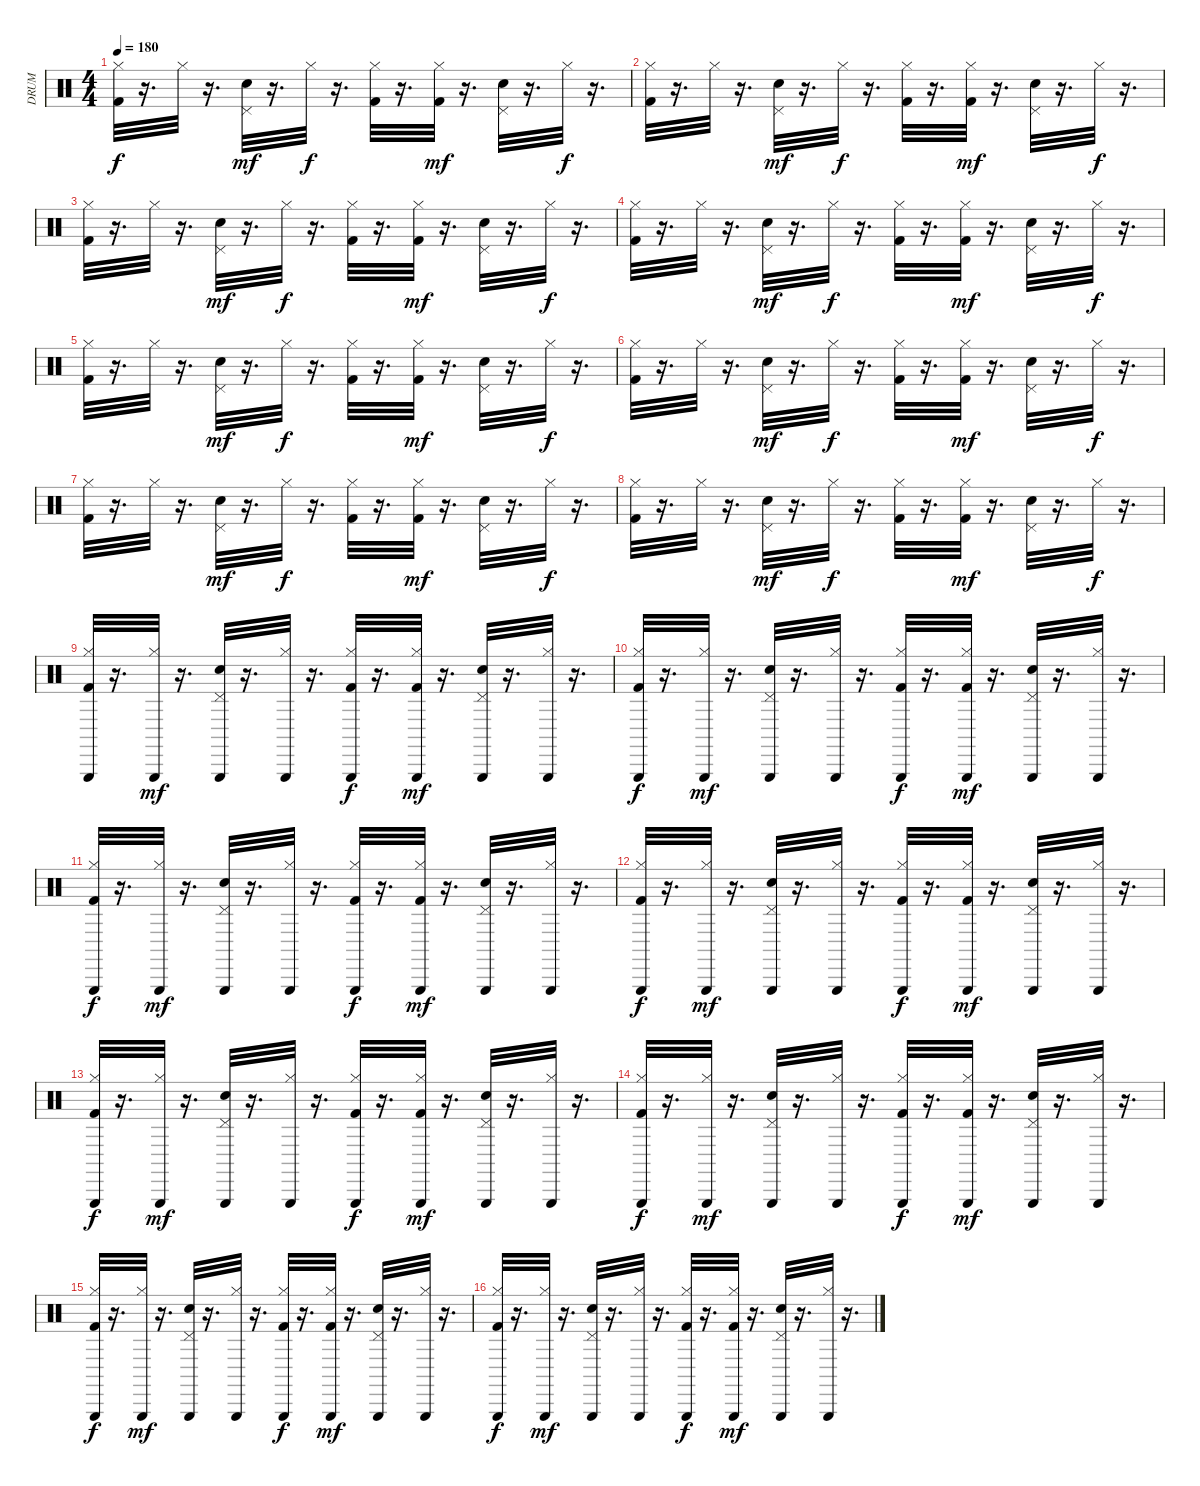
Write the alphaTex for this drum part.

\track ("DRUM" "DRUM") {instrument percussion}
\staff {score}
\articulation defaults
\ts (4 4)
\tempo 180
\clef neutral
\ks c
("Hi-Hat (closed)" "Kick (hit) 2").32{dy f} r.16{d} "Hi-Hat (closed)".32 r.16{d} ("Snare (hit) 2" "Pedal Hi-Hat (hit)").32{dy mf} r.16{d} "Hi-Hat (closed)".32{dy f} r.16{d} ("Hi-Hat (closed)" "Kick (hit) 2").32 r.16{d} ("Hi-Hat (closed)" "Kick (hit) 2").32{dy mf} r.16{d} ("Pedal Hi-Hat (hit)" "Snare (hit) 2").32 r.16{d} "Hi-Hat (closed)".32{dy f} r.16{d} |
("Kick (hit) 2" "Hi-Hat (closed)").32 r.16{d} "Hi-Hat (closed)".32 r.16{d} ("Pedal Hi-Hat (hit)" "Snare (hit) 2").32{dy mf} r.16{d} "Hi-Hat (closed)".32{dy f} r.16{d} ("Kick (hit) 2" "Hi-Hat (closed)").32 r.16{d} ("Kick (hit) 2" "Hi-Hat (closed)").32{dy mf} r.16{d} ("Snare (hit) 2" "Pedal Hi-Hat (hit)").32 r.16{d} "Hi-Hat (closed)".32{dy f} r.16{d} |
("Hi-Hat (closed)" "Kick (hit) 2").32 r.16{d} "Hi-Hat (closed)".32 r.16{d} ("Snare (hit) 2" "Pedal Hi-Hat (hit)").32{dy mf} r.16{d} "Hi-Hat (closed)".32{dy f} r.16{d} ("Hi-Hat (closed)" "Kick (hit) 2").32 r.16{d} ("Hi-Hat (closed)" "Kick (hit) 2").32{dy mf} r.16{d} ("Pedal Hi-Hat (hit)" "Snare (hit) 2").32 r.16{d} "Hi-Hat (closed)".32{dy f} r.16{d} |
("Kick (hit) 2" "Hi-Hat (closed)").32 r.16{d} "Hi-Hat (closed)".32 r.16{d} ("Pedal Hi-Hat (hit)" "Snare (hit) 2").32{dy mf} r.16{d} "Hi-Hat (closed)".32{dy f} r.16{d} ("Kick (hit) 2" "Hi-Hat (closed)").32 r.16{d} ("Kick (hit) 2" "Hi-Hat (closed)").32{dy mf} r.16{d} ("Snare (hit) 2" "Pedal Hi-Hat (hit)").32 r.16{d} "Hi-Hat (closed)".32{dy f} r.16{d} |
("Hi-Hat (closed)" "Kick (hit) 2").32 r.16{d} "Hi-Hat (closed)".32 r.16{d} ("Snare (hit) 2" "Pedal Hi-Hat (hit)").32{dy mf} r.16{d} "Hi-Hat (closed)".32{dy f} r.16{d} ("Hi-Hat (closed)" "Kick (hit) 2").32 r.16{d} ("Hi-Hat (closed)" "Kick (hit) 2").32{dy mf} r.16{d} ("Pedal Hi-Hat (hit)" "Snare (hit) 2").32 r.16{d} "Hi-Hat (closed)".32{dy f} r.16{d} |
("Kick (hit) 2" "Hi-Hat (closed)").32 r.16{d} "Hi-Hat (closed)".32 r.16{d} ("Pedal Hi-Hat (hit)" "Snare (hit) 2").32{dy mf} r.16{d} "Hi-Hat (closed)".32{dy f} r.16{d} ("Kick (hit) 2" "Hi-Hat (closed)").32 r.16{d} ("Kick (hit) 2" "Hi-Hat (closed)").32{dy mf} r.16{d} ("Snare (hit) 2" "Pedal Hi-Hat (hit)").32 r.16{d} "Hi-Hat (closed)".32{dy f} r.16{d} |
("Hi-Hat (closed)" "Kick (hit) 2").32 r.16{d} "Hi-Hat (closed)".32 r.16{d} ("Snare (hit) 2" "Pedal Hi-Hat (hit)").32{dy mf} r.16{d} "Hi-Hat (closed)".32{dy f} r.16{d} ("Hi-Hat (closed)" "Kick (hit) 2").32 r.16{d} ("Hi-Hat (closed)" "Kick (hit) 2").32{dy mf} r.16{d} ("Pedal Hi-Hat (hit)" "Snare (hit) 2").32 r.16{d} "Hi-Hat (closed)".32{dy f} r.16{d} |
("Kick (hit) 2" "Hi-Hat (closed)").32 r.16{d} "Hi-Hat (closed)".32 r.16{d} ("Pedal Hi-Hat (hit)" "Snare (hit) 2").32{dy mf} r.16{d} "Hi-Hat (closed)".32{dy f} r.16{d} ("Kick (hit) 2" "Hi-Hat (closed)").32 r.16{d} ("Kick (hit) 2" "Hi-Hat (closed)").32{dy mf} r.16{d} ("Snare (hit) 2" "Pedal Hi-Hat (hit)").32 r.16{d} "Hi-Hat (closed)".32{dy f} r.16{d} |
("Triangle (hit)" "Hi-Hat (closed)" "Kick (hit) 2").32 r.16{d} ("Triangle (hit)" "Hi-Hat (closed)").32{dy mf} r.16{d} ("Triangle (hit)" "Snare (hit) 2" "Pedal Hi-Hat (hit)").32 r.16{d} ("Triangle (hit)" "Hi-Hat (closed)").32 r.16{d} ("Triangle (hit)" "Hi-Hat (closed)" "Kick (hit) 2").32{dy f} r.16{d} ("Triangle (hit)" "Hi-Hat (closed)" "Kick (hit) 2").32{dy mf} r.16{d} ("Triangle (hit)" "Pedal Hi-Hat (hit)" "Snare (hit) 2").32 r.16{d} ("Triangle (hit)" "Hi-Hat (closed)").32 r.16{d} |
("Triangle (hit)" "Hi-Hat (closed)" "Kick (hit) 2").32{dy f} r.16{d} ("Hi-Hat (closed)" "Triangle (hit)").32{dy mf} r.16{d} ("Triangle (hit)" "Snare (hit) 2" "Pedal Hi-Hat (hit)").32 r.16{d} ("Hi-Hat (closed)" "Triangle (hit)").32 r.16{d} ("Triangle (hit)" "Hi-Hat (closed)" "Kick (hit) 2").32{dy f} r.16{d} ("Hi-Hat (closed)" "Triangle (hit)" "Kick (hit) 2").32{dy mf} r.16{d} ("Triangle (hit)" "Snare (hit) 2" "Pedal Hi-Hat (hit)").32 r.16{d} ("Triangle (hit)" "Hi-Hat (closed)").32 r.16{d} |
("Triangle (hit)" "Hi-Hat (closed)" "Kick (hit) 2").32{dy f} r.16{d} ("Triangle (hit)" "Hi-Hat (closed)").32{dy mf} r.16{d} ("Snare (hit) 2" "Pedal Hi-Hat (hit)" "Triangle (hit)").32 r.16{d} ("Triangle (hit)" "Hi-Hat (closed)").32 r.16{d} ("Triangle (hit)" "Kick (hit) 2" "Hi-Hat (closed)").32{dy f} r.16{d} ("Triangle (hit)" "Kick (hit) 2" "Hi-Hat (closed)").32{dy mf} r.16{d} ("Pedal Hi-Hat (hit)" "Snare (hit) 2" "Triangle (hit)").32 r.16{d} ("Hi-Hat (closed)" "Triangle (hit)").32 r.16{d} |
("Triangle (hit)" "Hi-Hat (closed)" "Kick (hit) 2").32{dy f} r.16{d} ("Triangle (hit)" "Hi-Hat (closed)").32{dy mf} r.16{d} ("Snare (hit) 2" "Pedal Hi-Hat (hit)" "Triangle (hit)").32 r.16{d} ("Triangle (hit)" "Hi-Hat (closed)").32 r.16{d} ("Triangle (hit)" "Hi-Hat (closed)" "Kick (hit) 2").32{dy f} r.16{d} ("Triangle (hit)" "Hi-Hat (closed)" "Kick (hit) 2").32{dy mf} r.16{d} ("Pedal Hi-Hat (hit)" "Snare (hit) 2" "Triangle (hit)").32 r.16{d} ("Triangle (hit)" "Hi-Hat (closed)").32 r.16{d} |
("Kick (hit) 2" "Hi-Hat (closed)" "Triangle (hit)").32{dy f} r.16{d} ("Triangle (hit)" "Hi-Hat (closed)").32{dy mf} r.16{d} ("Triangle (hit)" "Pedal Hi-Hat (hit)" "Snare (hit) 2").32 r.16{d} ("Triangle (hit)" "Hi-Hat (closed)").32 r.16{d} ("Triangle (hit)" "Kick (hit) 2" "Hi-Hat (closed)").32{dy f} r.16{d} ("Hi-Hat (closed)" "Kick (hit) 2" "Triangle (hit)").32{dy mf} r.16{d} ("Snare (hit) 2" "Pedal Hi-Hat (hit)" "Triangle (hit)").32 r.16{d} ("Hi-Hat (closed)" "Triangle (hit)").32 r.16{d} |
("Kick (hit) 2" "Triangle (hit)" "Hi-Hat (closed)").32{dy f} r.16{d} ("Triangle (hit)" "Hi-Hat (closed)").32{dy mf} r.16{d} ("Snare (hit) 2" "Pedal Hi-Hat (hit)" "Triangle (hit)").32 r.16{d} ("Hi-Hat (closed)" "Triangle (hit)").32 r.16{d} ("Triangle (hit)" "Kick (hit) 2" "Hi-Hat (closed)").32{dy f} r.16{d} ("Hi-Hat (closed)" "Kick (hit) 2" "Triangle (hit)").32{dy mf} r.16{d} ("Pedal Hi-Hat (hit)" "Snare (hit) 2" "Triangle (hit)").32 r.16{d} ("Hi-Hat (closed)" "Triangle (hit)").32 r.16{d} |
("Hi-Hat (closed)" "Triangle (hit)" "Kick (hit) 2").32{dy f} r.16{d} ("Hi-Hat (closed)" "Triangle (hit)").32{dy mf} r.16{d} ("Triangle (hit)" "Snare (hit) 2" "Pedal Hi-Hat (hit)").32 r.16{d} ("Hi-Hat (closed)" "Triangle (hit)").32 r.16{d} ("Triangle (hit)" "Kick (hit) 2" "Hi-Hat (closed)").32{dy f} r.16{d} ("Kick (hit) 2" "Hi-Hat (closed)" "Triangle (hit)").32{dy mf} r.16{d} ("Triangle (hit)" "Pedal Hi-Hat (hit)" "Snare (hit) 2").32 r.16{d} ("Hi-Hat (closed)" "Triangle (hit)").32 r.16{d} |
("Hi-Hat (closed)" "Triangle (hit)" "Kick (hit) 2").32{dy f} r.16{d} ("Triangle (hit)" "Hi-Hat (closed)").32{dy mf} r.16{d} ("Pedal Hi-Hat (hit)" "Snare (hit) 2" "Triangle (hit)").32 r.16{d} ("Hi-Hat (closed)" "Triangle (hit)").32 r.16{d} ("Hi-Hat (closed)" "Kick (hit) 2" "Triangle (hit)").32{dy f} r.16{d} ("Triangle (hit)" "Hi-Hat (closed)" "Kick (hit) 2").32{dy mf} r.16{d} ("Snare (hit) 2" "Pedal Hi-Hat (hit)" "Triangle (hit)").32 r.16{d} ("Hi-Hat (closed)" "Triangle (hit)").32 r.16{d}
